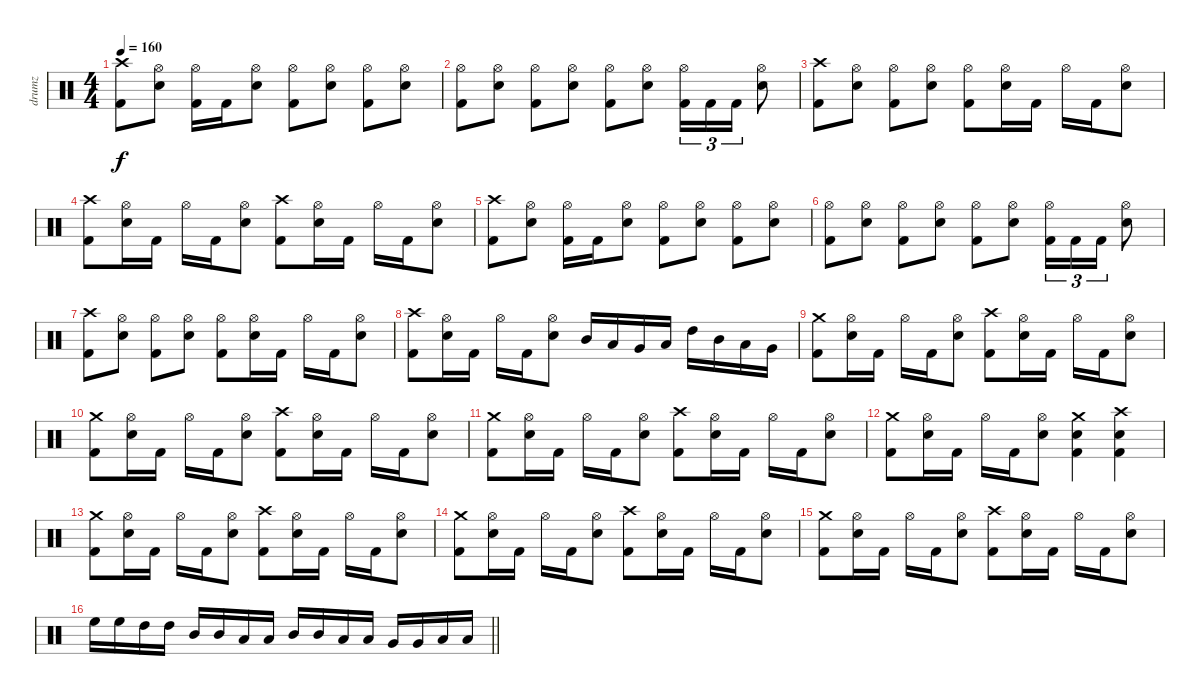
\track ("drumz" "drumz") {instrument percussion}
\staff {score}
\articulation defaults
\ts (4 4)
\tempo 160
\clef neutral
\ks c
("Crash high (hit)" "Kick (hit) 2").8{dy f} ("Hi-Hat (open)" "Electric Snare (hit)").8 ("Hi-Hat (open)" "Kick (hit) 2").16 "Kick (hit) 2".16 ("Hi-Hat (open)" "Electric Snare (hit)").8 ("Hi-Hat (open)" "Kick (hit) 2").8 ("Hi-Hat (open)" "Electric Snare (hit)").8 ("Hi-Hat (open)" "Kick (hit) 2").8 ("Hi-Hat (open)" "Electric Snare (hit)").8 |
("Hi-Hat (open)" "Kick (hit) 2").8 ("Hi-Hat (open)" "Electric Snare (hit)").8 ("Hi-Hat (open)" "Kick (hit) 2").8 ("Hi-Hat (open)" "Electric Snare (hit)").8 ("Hi-Hat (open)" "Kick (hit) 2").8 ("Hi-Hat (open)" "Electric Snare (hit)").8 ("Hi-Hat (open)" "Kick (hit) 2").16{tu (3 2)} "Kick (hit) 2".16{tu (3 2)} "Kick (hit) 2".16{tu (3 2)} ("Hi-Hat (open)" "Electric Snare (hit)").8 |
("Crash high (hit)" "Kick (hit) 2").8 ("Hi-Hat (open)" "Electric Snare (hit)").8 ("Hi-Hat (open)" "Kick (hit) 2").8 ("Hi-Hat (open)" "Electric Snare (hit)").8 ("Hi-Hat (open)" "Kick (hit) 2").8 ("Hi-Hat (open)" "Electric Snare (hit)").16 "Kick (hit) 2".16 "Hi-Hat (open)".16 "Kick (hit) 2".16 ("Hi-Hat (open)" "Electric Snare (hit)").8 |
("Crash high (hit)" "Kick (hit) 2").8 ("Hi-Hat (open)" "Electric Snare (hit)").16 "Kick (hit) 2".16 "Hi-Hat (open)".16 "Kick (hit) 2".16 ("Hi-Hat (open)" "Electric Snare (hit)").8 ("Crash high (hit)" "Kick (hit) 2").8 ("Hi-Hat (open)" "Electric Snare (hit)").16 "Kick (hit) 2".16 "Hi-Hat (open)".16 "Kick (hit) 2".16 ("Hi-Hat (open)" "Electric Snare (hit)").8 |
("Crash high (hit)" "Kick (hit) 2").8 ("Hi-Hat (open)" "Electric Snare (hit)").8 ("Hi-Hat (open)" "Kick (hit) 2").16 "Kick (hit) 2".16 ("Hi-Hat (open)" "Electric Snare (hit)").8 ("Hi-Hat (open)" "Kick (hit) 2").8 ("Hi-Hat (open)" "Electric Snare (hit)").8 ("Hi-Hat (open)" "Kick (hit) 2").8 ("Hi-Hat (open)" "Electric Snare (hit)").8 |
("Hi-Hat (open)" "Kick (hit) 2").8 ("Hi-Hat (open)" "Electric Snare (hit)").8 ("Hi-Hat (open)" "Kick (hit) 2").8 ("Hi-Hat (open)" "Electric Snare (hit)").8 ("Hi-Hat (open)" "Kick (hit) 2").8 ("Hi-Hat (open)" "Electric Snare (hit)").8 ("Hi-Hat (open)" "Kick (hit) 2").16{tu (3 2)} "Kick (hit) 2".16{tu (3 2)} "Kick (hit) 2".16{tu (3 2)} ("Hi-Hat (open)" "Electric Snare (hit)").8 |
("Crash high (hit)" "Kick (hit) 2").8 ("Hi-Hat (open)" "Electric Snare (hit)").8 ("Hi-Hat (open)" "Kick (hit) 2").8 ("Hi-Hat (open)" "Electric Snare (hit)").8 ("Hi-Hat (open)" "Kick (hit) 2").8 ("Hi-Hat (open)" "Electric Snare (hit)").16 "Kick (hit) 2".16 "Hi-Hat (open)".16 "Kick (hit) 2".16 ("Hi-Hat (open)" "Electric Snare (hit)").8 |
("Crash high (hit)" "Kick (hit) 2").8 ("Hi-Hat (open)" "Electric Snare (hit)").16 "Kick (hit) 2".16 "Hi-Hat (open)".16 "Kick (hit) 2".16 ("Hi-Hat (open)" "Electric Snare (hit)").8 "Mid Tom (hit)".16 "Low Tom (hit)".16 "Very Low Tom (hit)".16 "Low Floor Tom (hit)".16 "High Tom (hit)".16 "Mid Tom (hit)".16 "Low Tom (hit)".16 "Very Low Tom (hit)".16 |
("Crash medium (hit)" "Kick (hit) 2").8 ("Hi-Hat (open)" "Electric Snare (hit)").16 "Kick (hit) 2".16 "Hi-Hat (open)".16 "Kick (hit) 2".16 ("Hi-Hat (open)" "Electric Snare (hit)").8 ("Crash high (hit)" "Kick (hit) 2").8 ("Hi-Hat (open)" "Electric Snare (hit)").16 "Kick (hit) 2".16 "Hi-Hat (open)".16 "Kick (hit) 2".16 ("Hi-Hat (open)" "Electric Snare (hit)").8 |
("Crash medium (hit)" "Kick (hit) 2").8 ("Hi-Hat (open)" "Electric Snare (hit)").16 "Kick (hit) 2".16 "Hi-Hat (open)".16 "Kick (hit) 2".16 ("Hi-Hat (open)" "Electric Snare (hit)").8 ("Crash high (hit)" "Kick (hit) 2").8 ("Hi-Hat (open)" "Electric Snare (hit)").16 "Kick (hit) 2".16 "Hi-Hat (open)".16 "Kick (hit) 2".16 ("Hi-Hat (open)" "Electric Snare (hit)").8 |
("Crash medium (hit)" "Kick (hit) 2").8 ("Hi-Hat (open)" "Electric Snare (hit)").16 "Kick (hit) 2".16 "Hi-Hat (open)".16 "Kick (hit) 2".16 ("Hi-Hat (open)" "Electric Snare (hit)").8 ("Crash high (hit)" "Kick (hit) 2").8 ("Hi-Hat (open)" "Electric Snare (hit)").16 "Kick (hit) 2".16 "Hi-Hat (open)".16 "Kick (hit) 2".16 ("Hi-Hat (open)" "Electric Snare (hit)").8 |
("Crash medium (hit)" "Kick (hit) 2").8 ("Hi-Hat (open)" "Electric Snare (hit)").16 "Kick (hit) 2".16 "Hi-Hat (open)".16 "Kick (hit) 2".16 ("Hi-Hat (open)" "Electric Snare (hit)").8 ("Crash medium (hit)" "Electric Snare (hit)" "Kick (hit) 2").4 ("Crash high (hit)" "Electric Snare (hit)" "Kick (hit) 2").4 |
("Crash medium (hit)" "Kick (hit) 2").8 ("Hi-Hat (open)" "Electric Snare (hit)").16 "Kick (hit) 2".16 "Hi-Hat (open)".16 "Kick (hit) 2".16 ("Hi-Hat (open)" "Electric Snare (hit)").8 ("Crash high (hit)" "Kick (hit) 2").8 ("Hi-Hat (open)" "Electric Snare (hit)").16 "Kick (hit) 2".16 "Hi-Hat (open)".16 "Kick (hit) 2".16 ("Hi-Hat (open)" "Electric Snare (hit)").8 |
("Crash medium (hit)" "Kick (hit) 2").8 ("Hi-Hat (open)" "Electric Snare (hit)").16 "Kick (hit) 2".16 "Hi-Hat (open)".16 "Kick (hit) 2".16 ("Hi-Hat (open)" "Electric Snare (hit)").8 ("Crash high (hit)" "Kick (hit) 2").8 ("Hi-Hat (open)" "Electric Snare (hit)").16 "Kick (hit) 2".16 "Hi-Hat (open)".16 "Kick (hit) 2".16 ("Hi-Hat (open)" "Electric Snare (hit)").8 |
("Crash medium (hit)" "Kick (hit) 2").8 ("Hi-Hat (open)" "Electric Snare (hit)").16 "Kick (hit) 2".16 "Hi-Hat (open)".16 "Kick (hit) 2".16 ("Hi-Hat (open)" "Electric Snare (hit)").8 ("Crash high (hit)" "Kick (hit) 2").8 ("Hi-Hat (open)" "Electric Snare (hit)").16 "Kick (hit) 2".16 "Hi-Hat (open)".16 "Kick (hit) 2".16 ("Hi-Hat (open)" "Electric Snare (hit)").8 |
\barLineRight lightlight "High Floor Tom (hit)".16 "High Floor Tom (hit)".16 "High Tom (hit)".16 "High Tom (hit)".16 "Mid Tom (hit)".16 "Mid Tom (hit)".16 "Low Tom (hit)".16 "Low Tom (hit)".16 "Mid Tom (hit)".16 "Mid Tom (hit)".16 "Low Tom (hit)".16 "Low Tom (hit)".16 "Very Low Tom (hit)".16 "Very Low Tom (hit)".16 "Low Floor Tom (hit)".16 "Low Floor Tom (hit)".16
